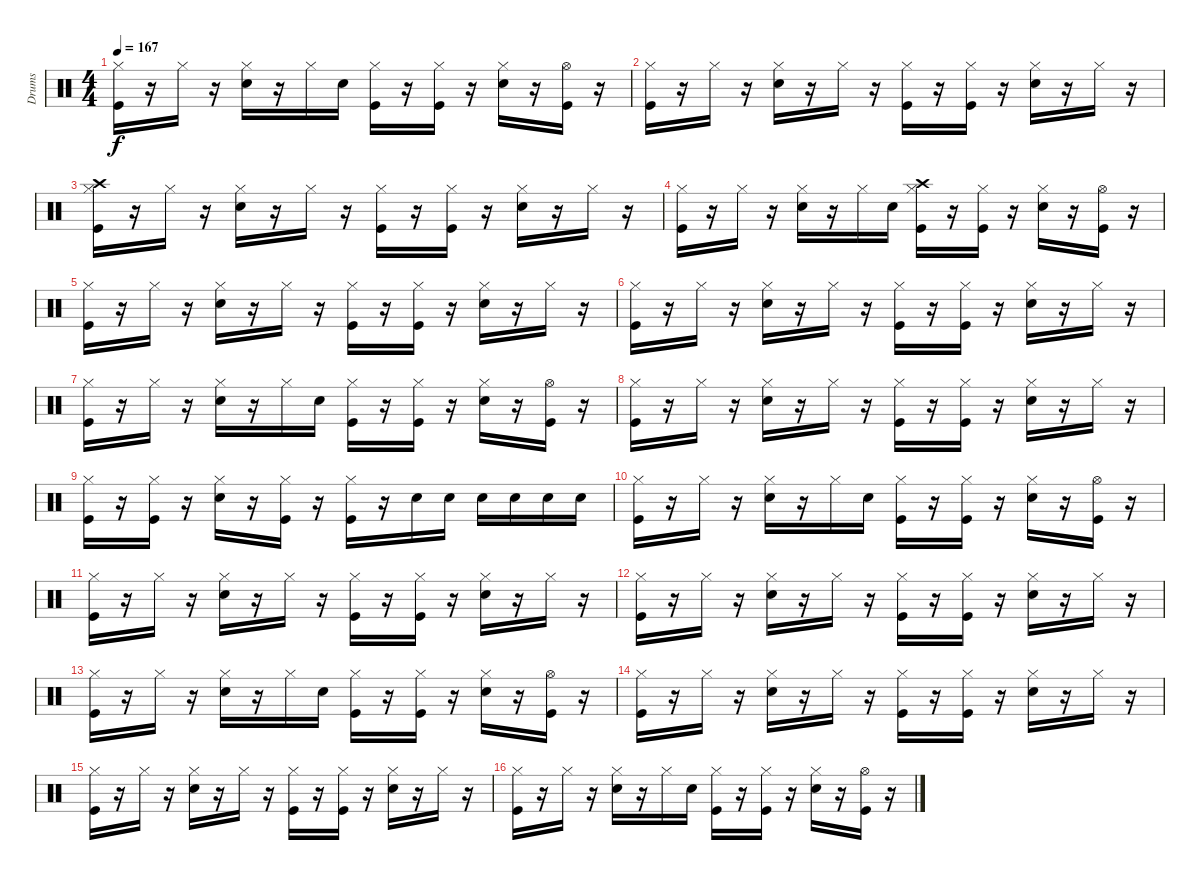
\track ("Drums" "Drums") {instrument percussion}
\staff {score}
\articulation defaults
\ts (4 4)
\tempo 167
\clef neutral
\ks c
("Kick (hit)" "Hi-Hat (closed)").16{dy f} r.16 "Hi-Hat (closed)".16 r.16 ("Snare (hit) 2" "Hi-Hat (closed)").16 r.16 "Hi-Hat (closed)".16 "Snare (hit) 2".16 ("Kick (hit)" "Hi-Hat (closed)").16 r.16 ("Kick (hit)" "Hi-Hat (closed)").16 r.16 ("Snare (hit) 2" "Hi-Hat (closed)").16 r.16 ("Kick (hit)" "Hi-Hat (open)").16 r.16 |
("Kick (hit)" "Hi-Hat (closed)").16 r.16 "Hi-Hat (closed)".16 r.16 ("Snare (hit) 2" "Hi-Hat (closed)").16 r.16 "Hi-Hat (closed)".16 r.16 ("Kick (hit)" "Hi-Hat (closed)").16 r.16 ("Kick (hit)" "Hi-Hat (closed)").16 r.16 ("Snare (hit) 2" "Hi-Hat (closed)").16 r.16 "Hi-Hat (closed)".16 r.16 |
("Kick (hit)" "Hi-Hat (closed)" "Crash high (hit)").16 r.16 "Hi-Hat (closed)".16 r.16 ("Snare (hit) 2" "Hi-Hat (closed)").16 r.16 "Hi-Hat (closed)".16 r.16 ("Kick (hit)" "Hi-Hat (closed)").16 r.16 ("Kick (hit)" "Hi-Hat (closed)").16 r.16 ("Snare (hit) 2" "Hi-Hat (closed)").16 r.16 "Hi-Hat (closed)".16 r.16 |
("Kick (hit)" "Hi-Hat (closed)").16 r.16 "Hi-Hat (closed)".16 r.16 ("Snare (hit) 2" "Hi-Hat (closed)").16 r.16 "Hi-Hat (closed)".16 "Snare (hit) 2".16 ("Crash high (hit)" "Kick (hit)" "Hi-Hat (closed)").16 r.16 ("Kick (hit)" "Hi-Hat (closed)").16 r.16 ("Snare (hit) 2" "Hi-Hat (closed)").16 r.16 ("Kick (hit)" "Hi-Hat (open)").16 r.16 |
("Kick (hit)" "Hi-Hat (closed)").16 r.16 "Hi-Hat (closed)".16 r.16 ("Snare (hit) 2" "Hi-Hat (closed)").16 r.16 "Hi-Hat (closed)".16 r.16 ("Kick (hit)" "Hi-Hat (closed)").16 r.16 ("Kick (hit)" "Hi-Hat (closed)").16 r.16 ("Snare (hit) 2" "Hi-Hat (closed)").16 r.16 "Hi-Hat (closed)".16 r.16 |
("Kick (hit)" "Hi-Hat (closed)").16 r.16 "Hi-Hat (closed)".16 r.16 ("Snare (hit) 2" "Hi-Hat (closed)").16 r.16 "Hi-Hat (closed)".16 r.16 ("Kick (hit)" "Hi-Hat (closed)").16 r.16 ("Kick (hit)" "Hi-Hat (closed)").16 r.16 ("Snare (hit) 2" "Hi-Hat (closed)").16 r.16 "Hi-Hat (closed)".16 r.16 |
("Kick (hit)" "Hi-Hat (closed)").16 r.16 "Hi-Hat (closed)".16 r.16 ("Snare (hit) 2" "Hi-Hat (closed)").16 r.16 "Hi-Hat (closed)".16 "Snare (hit) 2".16 ("Kick (hit)" "Hi-Hat (closed)").16 r.16 ("Kick (hit)" "Hi-Hat (closed)").16 r.16 ("Snare (hit) 2" "Hi-Hat (closed)").16 r.16 ("Kick (hit)" "Hi-Hat (open)").16 r.16 |
("Kick (hit)" "Hi-Hat (closed)").16 r.16 "Hi-Hat (closed)".16 r.16 ("Snare (hit) 2" "Hi-Hat (closed)").16 r.16 "Hi-Hat (closed)".16 r.16 ("Kick (hit)" "Hi-Hat (closed)").16 r.16 ("Kick (hit)" "Hi-Hat (closed)").16 r.16 ("Snare (hit) 2" "Hi-Hat (closed)").16 r.16 "Hi-Hat (closed)".16 r.16 |
("Kick (hit)" "Hi-Hat (closed)").16 r.16 ("Kick (hit)" "Hi-Hat (closed)").16 r.16 ("Snare (hit) 2" "Hi-Hat (closed)").16 r.16 ("Kick (hit)" "Hi-Hat (closed)").16 r.16 ("Kick (hit)" "Hi-Hat (closed)").16 r.16 "Snare (hit) 2".16 "Snare (hit) 2".16 "Snare (hit) 2".16 "Snare (hit) 2".16 "Snare (hit) 2".16 "Snare (hit) 2".16 |
("Kick (hit)" "Hi-Hat (closed)").16 r.16 "Hi-Hat (closed)".16 r.16 ("Snare (hit) 2" "Hi-Hat (closed)").16 r.16 "Hi-Hat (closed)".16 "Snare (hit) 2".16 ("Kick (hit)" "Hi-Hat (closed)").16 r.16 ("Kick (hit)" "Hi-Hat (closed)").16 r.16 ("Snare (hit) 2" "Hi-Hat (closed)").16 r.16 ("Kick (hit)" "Hi-Hat (open)").16 r.16 |
("Kick (hit)" "Hi-Hat (closed)").16 r.16 "Hi-Hat (closed)".16 r.16 ("Snare (hit) 2" "Hi-Hat (closed)").16 r.16 "Hi-Hat (closed)".16 r.16 ("Kick (hit)" "Hi-Hat (closed)").16 r.16 ("Kick (hit)" "Hi-Hat (closed)").16 r.16 ("Snare (hit) 2" "Hi-Hat (closed)").16 r.16 "Hi-Hat (closed)".16 r.16 |
("Kick (hit)" "Hi-Hat (closed)").16 r.16 "Hi-Hat (closed)".16 r.16 ("Snare (hit) 2" "Hi-Hat (closed)").16 r.16 "Hi-Hat (closed)".16 r.16 ("Kick (hit)" "Hi-Hat (closed)").16 r.16 ("Kick (hit)" "Hi-Hat (closed)").16 r.16 ("Snare (hit) 2" "Hi-Hat (closed)").16 r.16 "Hi-Hat (closed)".16 r.16 |
("Kick (hit)" "Hi-Hat (closed)").16 r.16 "Hi-Hat (closed)".16 r.16 ("Snare (hit) 2" "Hi-Hat (closed)").16 r.16 "Hi-Hat (closed)".16 "Snare (hit) 2".16 ("Kick (hit)" "Hi-Hat (closed)").16 r.16 ("Kick (hit)" "Hi-Hat (closed)").16 r.16 ("Snare (hit) 2" "Hi-Hat (closed)").16 r.16 ("Kick (hit)" "Hi-Hat (open)").16 r.16 |
("Kick (hit)" "Hi-Hat (closed)").16 r.16 "Hi-Hat (closed)".16 r.16 ("Snare (hit) 2" "Hi-Hat (closed)").16 r.16 "Hi-Hat (closed)".16 r.16 ("Kick (hit)" "Hi-Hat (closed)").16 r.16 ("Kick (hit)" "Hi-Hat (closed)").16 r.16 ("Snare (hit) 2" "Hi-Hat (closed)").16 r.16 "Hi-Hat (closed)".16 r.16 |
("Kick (hit)" "Hi-Hat (closed)").16 r.16 "Hi-Hat (closed)".16 r.16 ("Snare (hit) 2" "Hi-Hat (closed)").16 r.16 "Hi-Hat (closed)".16 r.16 ("Kick (hit)" "Hi-Hat (closed)").16 r.16 ("Kick (hit)" "Hi-Hat (closed)").16 r.16 ("Snare (hit) 2" "Hi-Hat (closed)").16 r.16 "Hi-Hat (closed)".16 r.16 |
("Kick (hit)" "Hi-Hat (closed)").16 r.16 "Hi-Hat (closed)".16 r.16 ("Snare (hit) 2" "Hi-Hat (closed)").16 r.16 "Hi-Hat (closed)".16 "Snare (hit) 2".16 ("Kick (hit)" "Hi-Hat (closed)").16 r.16 ("Kick (hit)" "Hi-Hat (closed)").16 r.16 ("Snare (hit) 2" "Hi-Hat (closed)").16 r.16 ("Kick (hit)" "Hi-Hat (open)").16 r.16
